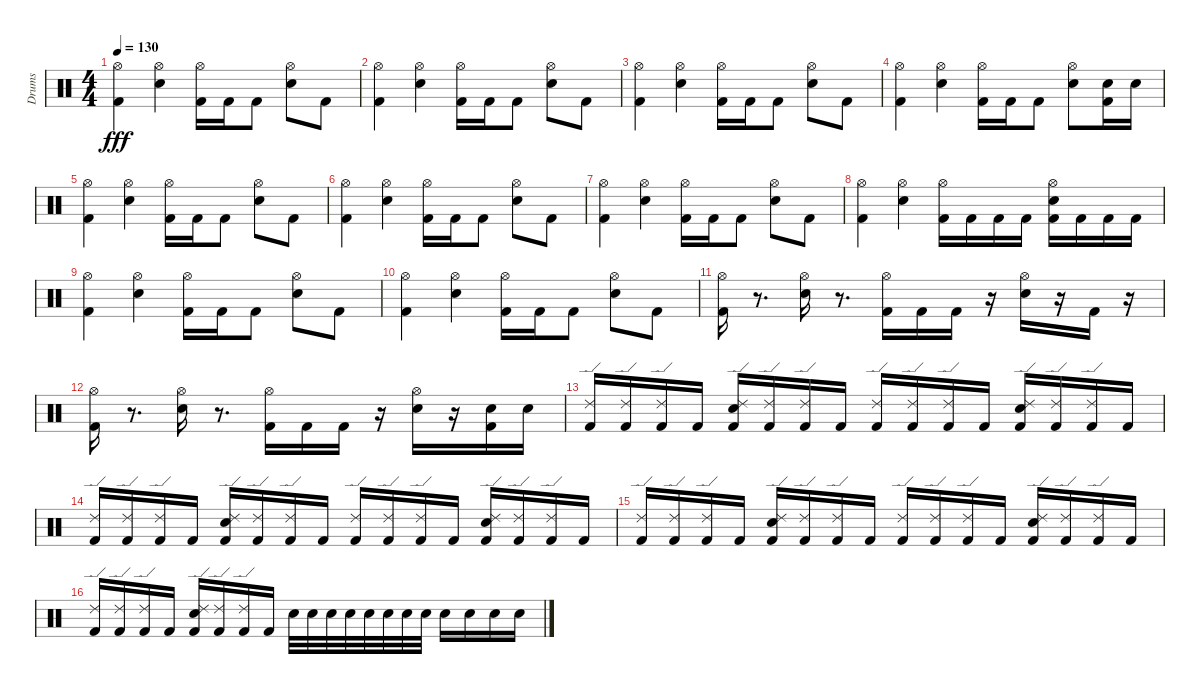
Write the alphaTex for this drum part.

\track ("Drums" "Drums") {instrument percussion}
\staff {score}
\articulation defaults
\ts (4 4)
\tempo 130
\clef neutral
\ks c
("Hi-Hat (open)" "Kick (hit) 2").4{dy fff} ("Hi-Hat (open)" "Snare (hit) 2").4 ("Hi-Hat (open)" "Kick (hit) 2").16 "Kick (hit) 2".16 "Kick (hit) 2".8 ("Hi-Hat (open)" "Electric Snare (hit)").8 "Kick (hit) 2".8 |
("Hi-Hat (open)" "Kick (hit) 2").4 ("Hi-Hat (open)" "Snare (hit) 2").4 ("Hi-Hat (open)" "Kick (hit) 2").16 "Kick (hit) 2".16 "Kick (hit) 2".8 ("Hi-Hat (open)" "Electric Snare (hit)").8 "Kick (hit) 2".8 |
("Hi-Hat (open)" "Kick (hit) 2").4 ("Hi-Hat (open)" "Snare (hit) 2").4 ("Hi-Hat (open)" "Kick (hit) 2").16 "Kick (hit) 2".16 "Kick (hit) 2".8 ("Hi-Hat (open)" "Electric Snare (hit)").8 "Kick (hit) 2".8 |
("Hi-Hat (open)" "Kick (hit) 2").4 ("Hi-Hat (open)" "Snare (hit) 2").4 ("Hi-Hat (open)" "Kick (hit) 2").16 "Kick (hit) 2".16 "Kick (hit) 2".8 ("Hi-Hat (open)" "Electric Snare (hit)").8 ("Electric Snare (hit)" "Kick (hit) 2").16 "Electric Snare (hit)".16 |
("Hi-Hat (open)" "Kick (hit) 2").4 ("Hi-Hat (open)" "Snare (hit) 2").4 ("Hi-Hat (open)" "Kick (hit) 2").16 "Kick (hit) 2".16 "Kick (hit) 2".8 ("Hi-Hat (open)" "Electric Snare (hit)").8 "Kick (hit) 2".8 |
("Hi-Hat (open)" "Kick (hit) 2").4 ("Hi-Hat (open)" "Snare (hit) 2").4 ("Hi-Hat (open)" "Kick (hit) 2").16 "Kick (hit) 2".16 "Kick (hit) 2".8 ("Hi-Hat (open)" "Electric Snare (hit)").8 "Kick (hit) 2".8 |
("Hi-Hat (open)" "Kick (hit) 2").4 ("Hi-Hat (open)" "Snare (hit) 2").4 ("Hi-Hat (open)" "Kick (hit) 2").16 "Kick (hit) 2".16 "Kick (hit) 2".8 ("Hi-Hat (open)" "Electric Snare (hit)").8 "Kick (hit) 2".8 |
("Hi-Hat (open)" "Kick (hit) 2").4 ("Hi-Hat (open)" "Snare (hit) 2").4 ("Hi-Hat (open)" "Kick (hit) 2").16 "Kick (hit) 2".16 "Kick (hit) 2".16 "Kick (hit) 2".16 ("Kick (hit) 2" "Hi-Hat (open)" "Electric Snare (hit)").16 "Kick (hit) 2".16 "Kick (hit) 2".16 "Kick (hit) 2".16 |
("Hi-Hat (open)" "Kick (hit) 2").4 ("Hi-Hat (open)" "Snare (hit) 2").4 ("Hi-Hat (open)" "Kick (hit) 2").16 "Kick (hit) 2".16 "Kick (hit) 2".8 ("Hi-Hat (open)" "Electric Snare (hit)").8 "Kick (hit) 2".8 |
("Hi-Hat (open)" "Kick (hit) 2").4 ("Hi-Hat (open)" "Snare (hit) 2").4 ("Hi-Hat (open)" "Kick (hit) 2").16 "Kick (hit) 2".16 "Kick (hit) 2".8 ("Hi-Hat (open)" "Electric Snare (hit)").8 "Kick (hit) 2".8 |
("Hi-Hat (open)" "Kick (hit) 2").16 r.8{d} ("Hi-Hat (open)" "Snare (hit) 2").16 r.8{d} ("Hi-Hat (open)" "Kick (hit) 2").16 "Kick (hit) 2".16 "Kick (hit) 2".16 r.16 ("Hi-Hat (open)" "Electric Snare (hit)").16 r.16 "Kick (hit) 2".16 r.16 |
("Hi-Hat (open)" "Kick (hit) 2").16 r.8{d} ("Hi-Hat (open)" "Snare (hit) 2").16 r.8{d} ("Hi-Hat (open)" "Kick (hit) 2").16 "Kick (hit) 2".16 "Kick (hit) 2".16 r.16 ("Hi-Hat (open)" "Electric Snare (hit)").16 r.16 ("Electric Snare (hit)" "Kick (hit) 2").16 "Electric Snare (hit)".16 |
("Ride (edge) 2" "Kick (hit) 2").16 ("Ride (edge) 2" "Kick (hit) 2").16 ("Ride (edge) 2" "Kick (hit) 2").16 "Kick (hit) 2".16 ("Ride (edge) 2" "Kick (hit) 2" "Electric Snare (hit)").16 ("Ride (edge) 2" "Kick (hit) 2").16 ("Ride (edge) 2" "Kick (hit) 2").16 "Kick (hit) 2".16 ("Ride (edge) 2" "Kick (hit) 2").16 ("Ride (edge) 2" "Kick (hit) 2").16 ("Ride (edge) 2" "Kick (hit) 2").16 "Kick (hit) 2".16 ("Electric Snare (hit)" "Ride (edge) 2" "Kick (hit) 2").16 ("Ride (edge) 2" "Kick (hit) 2").16 ("Ride (edge) 2" "Kick (hit) 2").16 "Kick (hit) 2".16 |
("Ride (edge) 2" "Kick (hit) 2").16 ("Ride (edge) 2" "Kick (hit) 2").16 ("Ride (edge) 2" "Kick (hit) 2").16 "Kick (hit) 2".16 ("Electric Snare (hit)" "Ride (edge) 2" "Kick (hit) 2").16 ("Ride (edge) 2" "Kick (hit) 2").16 ("Ride (edge) 2" "Kick (hit) 2").16 "Kick (hit) 2".16 ("Ride (edge) 2" "Kick (hit) 2").16 ("Ride (edge) 2" "Kick (hit) 2").16 ("Ride (edge) 2" "Kick (hit) 2").16 "Kick (hit) 2".16 ("Electric Snare (hit)" "Ride (edge) 2" "Kick (hit) 2").16 ("Ride (edge) 2" "Kick (hit) 2").16 ("Ride (edge) 2" "Kick (hit) 2").16 "Kick (hit) 2".16 |
("Ride (edge) 2" "Kick (hit) 2").16 ("Ride (edge) 2" "Kick (hit) 2").16 ("Ride (edge) 2" "Kick (hit) 2").16 "Kick (hit) 2".16 ("Ride (edge) 2" "Kick (hit) 2" "Electric Snare (hit)").16 ("Ride (edge) 2" "Kick (hit) 2").16 ("Ride (edge) 2" "Kick (hit) 2").16 "Kick (hit) 2".16 ("Ride (edge) 2" "Kick (hit) 2").16 ("Ride (edge) 2" "Kick (hit) 2").16 ("Ride (edge) 2" "Kick (hit) 2").16 "Kick (hit) 2".16 ("Electric Snare (hit)" "Ride (edge) 2" "Kick (hit) 2").16 ("Ride (edge) 2" "Kick (hit) 2").16 ("Ride (edge) 2" "Kick (hit) 2").16 "Kick (hit) 2".16 |
("Ride (edge) 2" "Kick (hit) 2").16 ("Ride (edge) 2" "Kick (hit) 2").16 ("Ride (edge) 2" "Kick (hit) 2").16 "Kick (hit) 2".16 ("Electric Snare (hit)" "Ride (edge) 2" "Kick (hit) 2").16 ("Ride (edge) 2" "Kick (hit) 2").16 ("Ride (edge) 2" "Kick (hit) 2").16 "Kick (hit) 2".16 "Electric Snare (hit)".32 "Electric Snare (hit)".32 "Electric Snare (hit)".32 "Electric Snare (hit)".32 "Electric Snare (hit)".32 "Electric Snare (hit)".32 "Electric Snare (hit)".32 "Electric Snare (hit)".32 "Electric Snare (hit)".16 "Electric Snare (hit)".16 "Electric Snare (hit)".16 "Electric Snare (hit)".16
